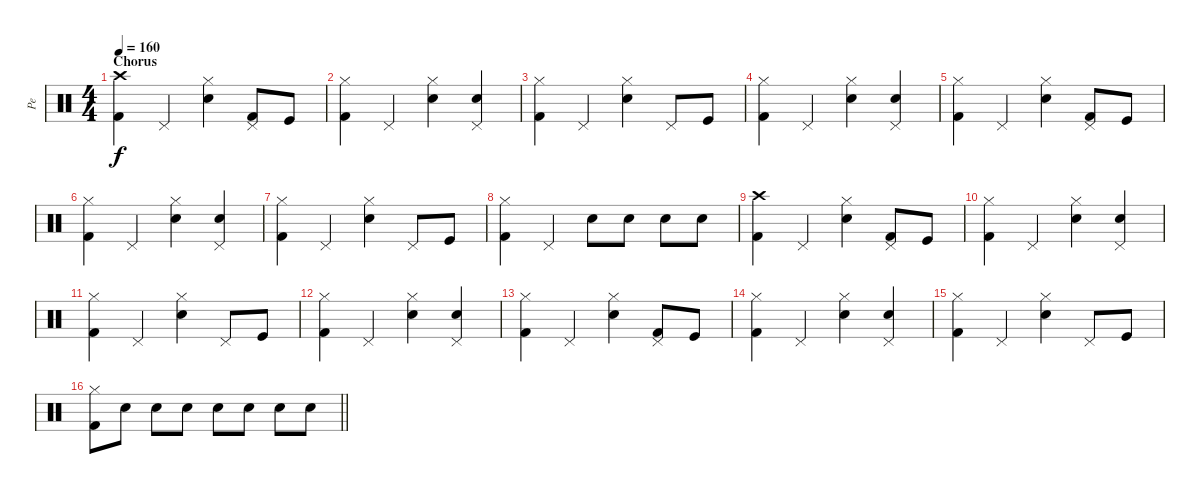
\track ("Pe" "Pe") {instrument percussion}
\staff {score}
\articulation defaults
\ts (4 4)
\section ("" "Chorus")
\tempo 160
\clef neutral
\ks c
("Kick (hit) 2" "Crash high (hit)").4{dy f} "Pedal Hi-Hat (hit)".4 ("Electric Snare (hit)" "Hi-Hat (closed)").4 ("Kick (hit) 2" "Pedal Hi-Hat (hit)").8 "Kick (hit)".8 |
("Kick (hit) 2" "Hi-Hat (closed)").4 "Pedal Hi-Hat (hit)".4 ("Electric Snare (hit)" "Hi-Hat (closed)").4 ("Electric Snare (hit)" "Pedal Hi-Hat (hit)").4 |
("Kick (hit) 2" "Hi-Hat (closed)").4 "Pedal Hi-Hat (hit)".4 ("Electric Snare (hit)" "Hi-Hat (closed)").4 "Pedal Hi-Hat (hit)".8 "Kick (hit)".8 |
("Kick (hit) 2" "Hi-Hat (closed)").4 "Pedal Hi-Hat (hit)".4 ("Electric Snare (hit)" "Hi-Hat (closed)").4 ("Electric Snare (hit)" "Pedal Hi-Hat (hit)").4 |
("Kick (hit) 2" "Hi-Hat (closed)").4 "Pedal Hi-Hat (hit)".4 ("Electric Snare (hit)" "Hi-Hat (closed)").4 ("Kick (hit) 2" "Pedal Hi-Hat (hit)").8 "Kick (hit)".8 |
("Kick (hit) 2" "Hi-Hat (closed)").4 "Pedal Hi-Hat (hit)".4 ("Electric Snare (hit)" "Hi-Hat (closed)").4 ("Electric Snare (hit)" "Pedal Hi-Hat (hit)").4 |
("Kick (hit) 2" "Hi-Hat (closed)").4 "Pedal Hi-Hat (hit)".4 ("Electric Snare (hit)" "Hi-Hat (closed)").4 "Pedal Hi-Hat (hit)".8 "Kick (hit)".8 |
("Kick (hit) 2" "Hi-Hat (closed)").4 "Pedal Hi-Hat (hit)".4 "Electric Snare (hit)".8 "Electric Snare (hit)".8 "Electric Snare (hit)".8 "Electric Snare (hit)".8 |
("Kick (hit) 2" "Crash high (hit)").4 "Pedal Hi-Hat (hit)".4 ("Electric Snare (hit)" "Hi-Hat (closed)").4 ("Kick (hit) 2" "Pedal Hi-Hat (hit)").8 "Kick (hit)".8 |
("Kick (hit) 2" "Hi-Hat (closed)").4 "Pedal Hi-Hat (hit)".4 ("Electric Snare (hit)" "Hi-Hat (closed)").4 ("Electric Snare (hit)" "Pedal Hi-Hat (hit)").4 |
("Kick (hit) 2" "Hi-Hat (closed)").4 "Pedal Hi-Hat (hit)".4 ("Electric Snare (hit)" "Hi-Hat (closed)").4 "Pedal Hi-Hat (hit)".8 "Kick (hit)".8 |
("Kick (hit) 2" "Hi-Hat (closed)").4 "Pedal Hi-Hat (hit)".4 ("Electric Snare (hit)" "Hi-Hat (closed)").4 ("Electric Snare (hit)" "Pedal Hi-Hat (hit)").4 |
("Kick (hit) 2" "Hi-Hat (closed)").4 "Pedal Hi-Hat (hit)".4 ("Electric Snare (hit)" "Hi-Hat (closed)").4 ("Kick (hit) 2" "Pedal Hi-Hat (hit)").8 "Kick (hit)".8 |
("Kick (hit) 2" "Hi-Hat (closed)").4 "Pedal Hi-Hat (hit)".4 ("Electric Snare (hit)" "Hi-Hat (closed)").4 ("Electric Snare (hit)" "Pedal Hi-Hat (hit)").4 |
("Kick (hit) 2" "Hi-Hat (closed)").4 "Pedal Hi-Hat (hit)".4 ("Electric Snare (hit)" "Hi-Hat (closed)").4 "Pedal Hi-Hat (hit)".8 "Kick (hit)".8 |
\barLineRight lightlight
("Kick (hit) 2" "Hi-Hat (closed)").8 "Electric Snare (hit)".8 "Electric Snare (hit)".8 "Electric Snare (hit)".8 "Electric Snare (hit)".8 "Electric Snare (hit)".8 "Electric Snare (hit)".8 "Electric Snare (hit)".8
